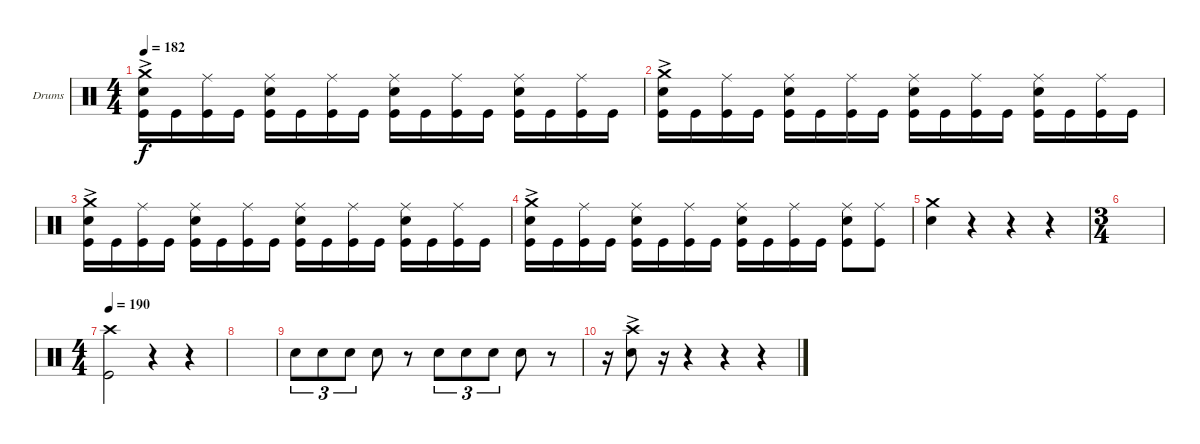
\bracketExtendMode groupsimilarinstruments
\firstSystemTrackNameOrientation horizontal
\otherSystemsTrackNameOrientation horizontal
\track ("Drums" "Drums") {instrument percussion}
\staff {score}
\articulation defaults
\ts (4 4)
\tempo 182
\clef neutral
\ks c
("Kick (hit)" "Crash medium (hit)"{ac} "Snare (hit) 2").16{dy f} "Kick (hit)".16 ("Kick (hit)" "Ride (middle)").16 "Kick (hit)".16 ("Snare (hit) 2" "Kick (hit)" "Ride (middle)").16 "Kick (hit)".16 ("Kick (hit)" "Ride (middle)").16 "Kick (hit)".16 ("Snare (hit) 2" "Kick (hit)" "Ride (middle)").16 "Kick (hit)".16 ("Kick (hit)" "Ride (middle)").16 "Kick (hit)".16 ("Snare (hit) 2" "Kick (hit)" "Ride (middle)").16 "Kick (hit)".16 ("Kick (hit)" "Ride (middle)").16 "Kick (hit)".16 |
("Kick (hit)" "Crash medium (hit)"{ac} "Snare (hit) 2").16 "Kick (hit)".16 ("Kick (hit)" "Ride (middle)").16 "Kick (hit)".16 ("Snare (hit) 2" "Kick (hit)" "Ride (middle)").16 "Kick (hit)".16 ("Kick (hit)" "Ride (middle)").16 "Kick (hit)".16 ("Snare (hit) 2" "Kick (hit)" "Ride (middle)").16 "Kick (hit)".16 ("Kick (hit)" "Ride (middle)").16 "Kick (hit)".16 ("Snare (hit) 2" "Kick (hit)" "Ride (middle)").16 "Kick (hit)".16 ("Kick (hit)" "Ride (middle)").16 "Kick (hit)".16 |
("Kick (hit)" "Crash medium (hit)"{ac} "Snare (hit) 2").16 "Kick (hit)".16 ("Kick (hit)" "Ride (middle)").16 "Kick (hit)".16 ("Snare (hit) 2" "Kick (hit)" "Ride (middle)").16 "Kick (hit)".16 ("Kick (hit)" "Ride (middle)").16 "Kick (hit)".16 ("Snare (hit) 2" "Kick (hit)" "Ride (middle)").16 "Kick (hit)".16 ("Kick (hit)" "Ride (middle)").16 "Kick (hit)".16 ("Snare (hit) 2" "Kick (hit)" "Ride (middle)").16 "Kick (hit)".16 ("Kick (hit)" "Ride (middle)").16 "Kick (hit)".16 |
("Kick (hit)" "Crash medium (hit)"{ac} "Snare (hit) 2").16 "Kick (hit)".16 ("Kick (hit)" "Ride (middle)").16 "Kick (hit)".16 ("Snare (hit) 2" "Kick (hit)" "Ride (middle)").16 "Kick (hit)".16 ("Kick (hit)" "Ride (middle)").16 "Kick (hit)".16 ("Snare (hit) 2" "Kick (hit)" "Ride (middle)").16 "Kick (hit)".16 ("Kick (hit)" "Ride (middle)").16 "Kick (hit)".16 ("Snare (hit) 2" "Kick (hit)" "Ride (middle)").8 ("Kick (hit)" "Ride (middle)").8 |
("Snare (hit) 2" "Crash medium (hit)").4 r.4 r.4 r.4 |
\ts (3 4)
|
\ts (4 4)
\tempo 190
("Kick (hit)" "Crash high (hit)").2 r.4 r.4 |
|
"Snare (hit) 2".8{tu (3 2)} "Snare (hit) 2".8{tu (3 2)} "Snare (hit) 2".8{tu (3 2)} "Snare (hit) 2".8 r.8 "Snare (hit) 2".8{tu (3 2)} "Snare (hit) 2".8{tu (3 2)} "Snare (hit) 2".8{tu (3 2)} "Snare (hit) 2".8 r.8 |
r.16 ("Crash high (hit)"{ac} "Snare (hit) 2"{ac}).8 r.16 r.4 r.4 r.4
